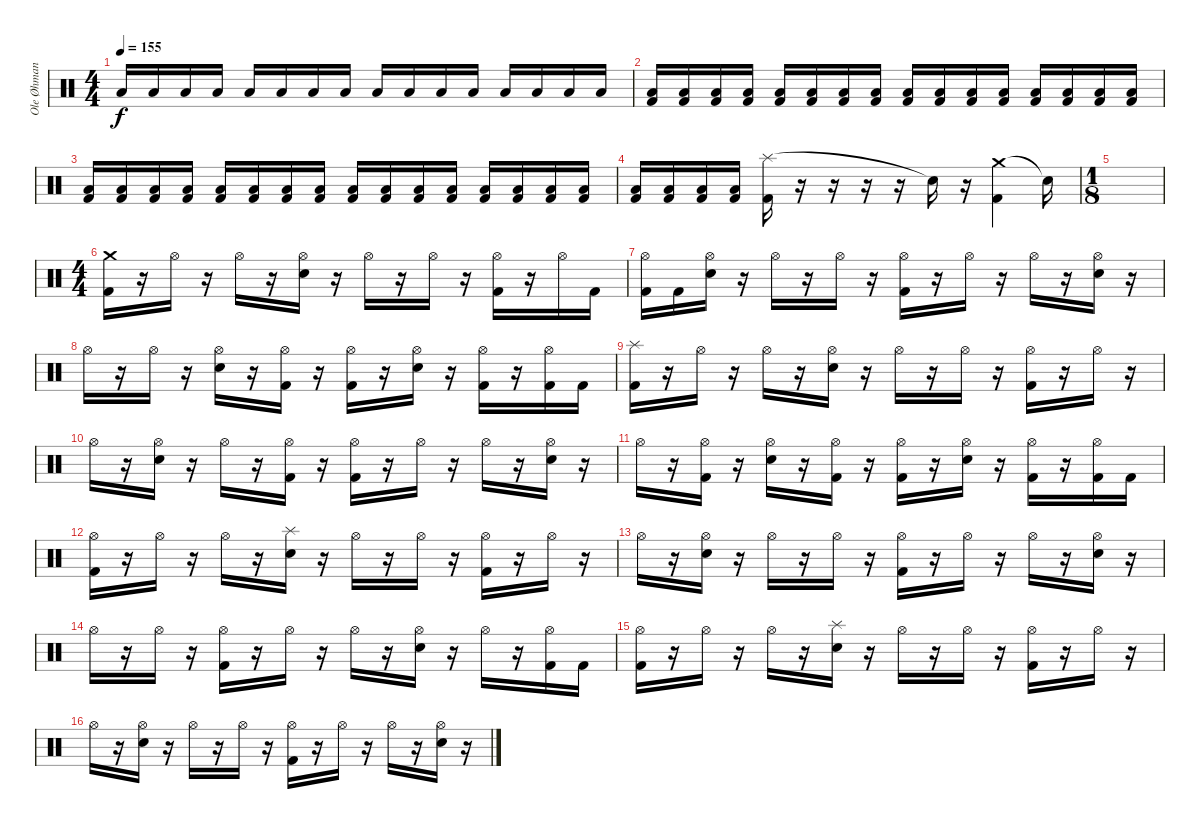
\track ("Ole Øhman (Trommur)" "Ole Øhman ") {instrument percussion}
\staff {score}
\articulation defaults
\ts (4 4)
\tempo 155
\clef neutral
\ks c "Low Tom (hit)".16{dy f} "Low Tom (hit)".16 "Low Tom (hit)".16 "Low Tom (hit)".16 "Low Tom (hit)".16 "Low Tom (hit)".16 "Low Tom (hit)".16 "Low Tom (hit)".16 "Low Tom (hit)".16 "Low Tom (hit)".16 "Low Tom (hit)".16 "Low Tom (hit)".16 "Low Tom (hit)".16 "Low Tom (hit)".16 "Low Tom (hit)".16 "Low Tom (hit)".16
|
("Low Tom (hit)" "Kick (hit) 2").16 ("Low Tom (hit)" "Kick (hit) 2").16 ("Low Tom (hit)" "Kick (hit) 2").16 ("Low Tom (hit)" "Kick (hit) 2").16 ("Low Tom (hit)" "Kick (hit) 2").16 ("Low Tom (hit)" "Kick (hit) 2").16 ("Low Tom (hit)" "Kick (hit) 2").16 ("Low Tom (hit)" "Kick (hit) 2").16 ("Low Tom (hit)" "Kick (hit) 2").16 ("Low Tom (hit)" "Kick (hit) 2").16 ("Low Tom (hit)" "Kick (hit) 2").16 ("Low Tom (hit)" "Kick (hit) 2").16 ("Low Tom (hit)" "Kick (hit) 2").16 ("Low Tom (hit)" "Kick (hit) 2").16 ("Low Tom (hit)" "Kick (hit) 2").16 ("Low Tom (hit)" "Kick (hit) 2").16 |
("Low Tom (hit)" "Kick (hit) 2").16 ("Low Tom (hit)" "Kick (hit) 2").16 ("Low Tom (hit)" "Kick (hit) 2").16 ("Low Tom (hit)" "Kick (hit) 2").16 ("Low Tom (hit)" "Kick (hit) 2").16 ("Low Tom (hit)" "Kick (hit) 2").16 ("Low Tom (hit)" "Kick (hit) 2").16 ("Low Tom (hit)" "Kick (hit) 2").16 ("Low Tom (hit)" "Kick (hit) 2").16 ("Low Tom (hit)" "Kick (hit) 2").16 ("Low Tom (hit)" "Kick (hit) 2").16 ("Low Tom (hit)" "Kick (hit) 2").16 ("Low Tom (hit)" "Kick (hit) 2").16 ("Low Tom (hit)" "Kick (hit) 2").16 ("Low Tom (hit)" "Kick (hit) 2").16 ("Low Tom (hit)" "Kick (hit) 2").16 |
("Low Tom (hit)" "Kick (hit) 2").16 ("Low Tom (hit)" "Kick (hit) 2").16 ("Low Tom (hit)" "Kick (hit) 2").16 ("Low Tom (hit)" "Kick (hit) 2").16 ("Splash (hit)" "Kick (hit) 2").16 r.16 r.16 r.16 r.16 "Snare (hit)"{t}.16 r.16 ("Crash medium (hit)" "Kick (hit) 2").4 "Snare (hit)"{t}.16 |
\ts (1 8)
|
\ts (4 4)
("Crash medium (hit)" "Kick (hit) 2").16 r.16 "Hi-Hat (open)".16 r.16 "Hi-Hat (open)".16 r.16 ("Hi-Hat (open)" "Electric Snare (hit)").16 r.16 "Hi-Hat (open)".16 r.16 "Hi-Hat (open)".16 r.16 ("Hi-Hat (open)" "Kick (hit) 2").16 r.16 "Hi-Hat (open)".16 "Kick (hit) 2".16 |
("Hi-Hat (open)" "Kick (hit) 2").16 "Kick (hit) 2".16 ("Hi-Hat (open)" "Electric Snare (hit)").16 r.16 "Hi-Hat (open)".16 r.16 "Hi-Hat (open)".16 r.16 ("Hi-Hat (open)" "Kick (hit) 2").16 r.16 "Hi-Hat (open)".16 r.16 "Hi-Hat (open)".16 r.16 ("Hi-Hat (open)" "Electric Snare (hit)").16 r.16 |
"Hi-Hat (open)".16 r.16 "Hi-Hat (open)".16 r.16 ("Hi-Hat (open)" "Electric Snare (hit)").16 r.16 ("Hi-Hat (open)" "Kick (hit) 2").16 r.16 ("Hi-Hat (open)" "Kick (hit) 2").16 r.16 ("Hi-Hat (open)" "Electric Snare (hit)").16 r.16 ("Hi-Hat (open)" "Kick (hit) 2").16 r.16 ("Hi-Hat (open)" "Kick (hit) 2").16 "Kick (hit) 2".16 |
("Splash (hit)" "Kick (hit) 2").16 r.16 "Hi-Hat (open)".16 r.16 "Hi-Hat (open)".16 r.16 ("Hi-Hat (open)" "Electric Snare (hit)").16 r.16 "Hi-Hat (open)".16 r.16 "Hi-Hat (open)".16 r.16 ("Hi-Hat (open)" "Kick (hit) 2").16 r.16 "Hi-Hat (open)".16 r.16 |
"Hi-Hat (open)".16 r.16 ("Hi-Hat (open)" "Electric Snare (hit)").16 r.16 "Hi-Hat (open)".16 r.16 ("Hi-Hat (open)" "Kick (hit) 2").16 r.16 ("Hi-Hat (open)" "Kick (hit) 2").16 r.16 "Hi-Hat (open)".16 r.16 "Hi-Hat (open)".16 r.16 ("Hi-Hat (open)" "Electric Snare (hit)").16 r.16 |
"Hi-Hat (open)".16 r.16 ("Hi-Hat (open)" "Kick (hit) 2").16 r.16 ("Hi-Hat (open)" "Electric Snare (hit)").16 r.16 ("Hi-Hat (open)" "Kick (hit) 2").16 r.16 ("Hi-Hat (open)" "Kick (hit) 2").16 r.16 ("Hi-Hat (open)" "Electric Snare (hit)").16 r.16 ("Hi-Hat (open)" "Kick (hit) 2").16 r.16 ("Hi-Hat (open)" "Kick (hit) 2").16 "Kick (hit) 2".16 |
("Hi-Hat (open)" "Kick (hit) 2").16 r.16 "Hi-Hat (open)".16 r.16 "Hi-Hat (open)".16 r.16 ("Splash (hit)" "Electric Snare (hit)").16 r.16 "Hi-Hat (open)".16 r.16 "Hi-Hat (open)".16 r.16 ("Hi-Hat (open)" "Kick (hit) 2").16 r.16 "Hi-Hat (open)".16 r.16 |
"Hi-Hat (open)".16 r.16 ("Hi-Hat (open)" "Electric Snare (hit)").16 r.16 "Hi-Hat (open)".16 r.16 "Hi-Hat (open)".16 r.16 ("Hi-Hat (open)" "Kick (hit) 2").16 r.16 "Hi-Hat (open)".16 r.16 "Hi-Hat (open)".16 r.16 ("Hi-Hat (open)" "Electric Snare (hit)").16 r.16 |
"Hi-Hat (open)".16 r.16 "Hi-Hat (open)".16 r.16 ("Hi-Hat (open)" "Kick (hit) 2").16 r.16 "Hi-Hat (open)".16 r.16 "Hi-Hat (open)".16 r.16 ("Hi-Hat (open)" "Electric Snare (hit)").16 r.16 "Hi-Hat (open)".16 r.16 ("Hi-Hat (open)" "Kick (hit) 2").16 "Kick (hit) 2".16 |
("Hi-Hat (open)" "Kick (hit) 2").16 r.16 "Hi-Hat (open)".16 r.16 "Hi-Hat (open)".16 r.16 ("Splash (hit)" "Electric Snare (hit)").16 r.16 "Hi-Hat (open)".16 r.16 "Hi-Hat (open)".16 r.16 ("Hi-Hat (open)" "Kick (hit) 2").16 r.16 "Hi-Hat (open)".16 r.16 |
"Hi-Hat (open)".16 r.16 ("Hi-Hat (open)" "Electric Snare (hit)").16 r.16 "Hi-Hat (open)".16 r.16 "Hi-Hat (open)".16 r.16 ("Hi-Hat (open)" "Kick (hit) 2").16 r.16 "Hi-Hat (open)".16 r.16 "Hi-Hat (open)".16 r.16 ("Hi-Hat (open)" "Electric Snare (hit)").16 r.16
